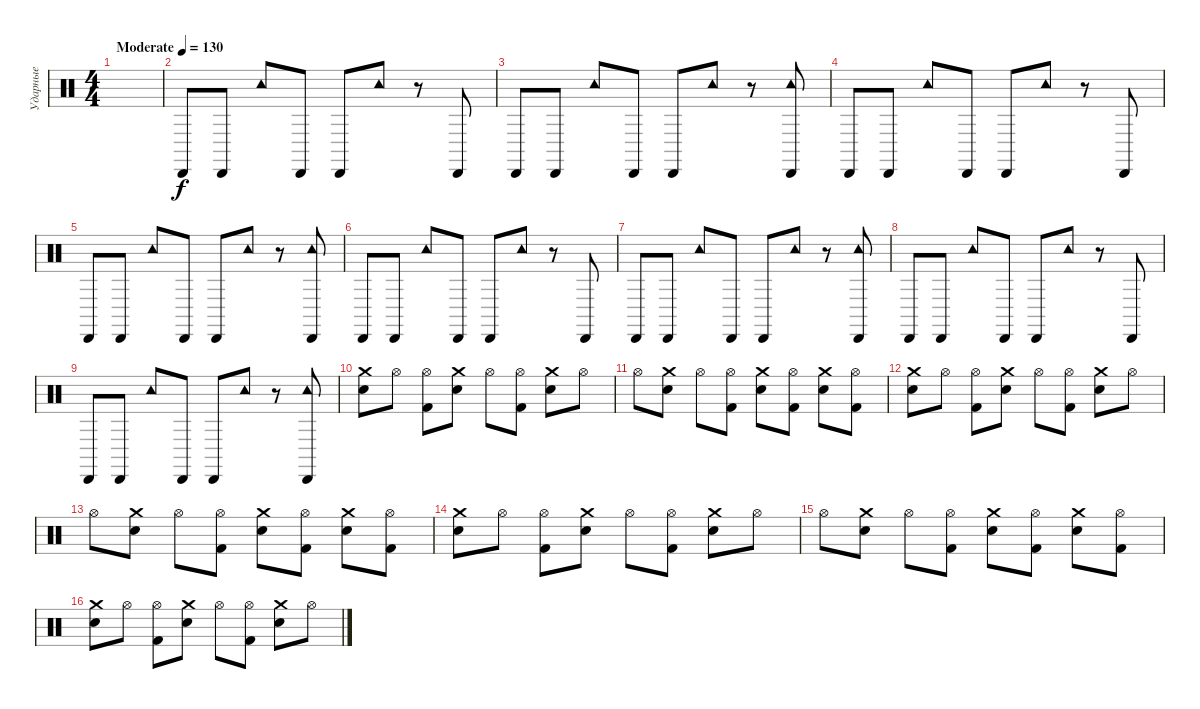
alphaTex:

\track ("Ударные" "Ударные") {instrument percussion}
\staff {score}
\articulation defaults
\ts (4 4)
\tempo (130 "Moderate")
\clef neutral
\ks c
|
"Cabasa (hit)".8 "Cabasa (hit)".8 "Tambourine (hit)".8 "Cabasa (hit)".8 "Cabasa (hit)".8 "Tambourine (hit)".8 r.8 "Cabasa (hit)".8 |
"Cabasa (hit)".8 "Cabasa (hit)".8 "Tambourine (hit)".8 "Cabasa (hit)".8 "Cabasa (hit)".8 "Tambourine (hit)".8 r.8 ("Tambourine (hit)" "Cabasa (hit)").8 |
"Cabasa (hit)".8 "Cabasa (hit)".8 "Tambourine (hit)".8 "Cabasa (hit)".8 "Cabasa (hit)".8 "Tambourine (hit)".8 r.8 "Cabasa (hit)".8 |
"Cabasa (hit)".8 "Cabasa (hit)".8 "Tambourine (hit)".8 "Cabasa (hit)".8 "Cabasa (hit)".8 "Tambourine (hit)".8 r.8 ("Tambourine (hit)" "Cabasa (hit)").8 |
"Cabasa (hit)".8 "Cabasa (hit)".8 "Tambourine (hit)".8 "Cabasa (hit)".8 "Cabasa (hit)".8 "Tambourine (hit)".8 r.8 "Cabasa (hit)".8 |
"Cabasa (hit)".8 "Cabasa (hit)".8 "Tambourine (hit)".8 "Cabasa (hit)".8 "Cabasa (hit)".8 "Tambourine (hit)".8 r.8 ("Tambourine (hit)" "Cabasa (hit)").8 |
"Cabasa (hit)".8 "Cabasa (hit)".8 "Tambourine (hit)".8 "Cabasa (hit)".8 "Cabasa (hit)".8 "Tambourine (hit)".8 r.8 "Cabasa (hit)".8 |
"Cabasa (hit)".8 "Cabasa (hit)".8 "Tambourine (hit)".8 "Cabasa (hit)".8 "Cabasa (hit)".8 "Tambourine (hit)".8 r.8 ("Tambourine (hit)" "Cabasa (hit)").8 |
("Crash medium (hit)" "Snare (hit) 2").8 "Hi-Hat (open)".8 ("Hi-Hat (open)" "Kick (hit) 2").8 ("Crash medium (hit)" "Snare (hit) 2").8 "Hi-Hat (open)".8 ("Hi-Hat (open)" "Kick (hit) 2").8 ("Crash medium (hit)" "Snare (hit) 2").8 "Hi-Hat (open)".8 |
"Hi-Hat (open)".8 ("Crash medium (hit)" "Snare (hit) 2").8 "Hi-Hat (open)".8 ("Hi-Hat (open)" "Kick (hit) 2").8 ("Crash medium (hit)" "Snare (hit) 2").8 ("Hi-Hat (open)" "Kick (hit) 2").8 ("Crash medium (hit)" "Snare (hit) 2").8 ("Hi-Hat (open)" "Kick (hit) 2").8 |
("Crash medium (hit)" "Snare (hit) 2").8 "Hi-Hat (open)".8 ("Hi-Hat (open)" "Kick (hit) 2").8 ("Crash medium (hit)" "Snare (hit) 2").8 "Hi-Hat (open)".8 ("Hi-Hat (open)" "Kick (hit) 2").8 ("Crash medium (hit)" "Snare (hit) 2").8 "Hi-Hat (open)".8 |
"Hi-Hat (open)".8 ("Crash medium (hit)" "Snare (hit) 2").8 "Hi-Hat (open)".8 ("Hi-Hat (open)" "Kick (hit) 2").8 ("Crash medium (hit)" "Snare (hit) 2").8 ("Hi-Hat (open)" "Kick (hit) 2").8 ("Crash medium (hit)" "Snare (hit) 2").8 ("Hi-Hat (open)" "Kick (hit) 2").8 |
("Crash medium (hit)" "Snare (hit) 2").8 "Hi-Hat (open)".8 ("Hi-Hat (open)" "Kick (hit) 2").8 ("Crash medium (hit)" "Snare (hit) 2").8 "Hi-Hat (open)".8 ("Hi-Hat (open)" "Kick (hit) 2").8 ("Crash medium (hit)" "Snare (hit) 2").8 "Hi-Hat (open)".8 |
"Hi-Hat (open)".8 ("Crash medium (hit)" "Snare (hit) 2").8 "Hi-Hat (open)".8 ("Hi-Hat (open)" "Kick (hit) 2").8 ("Crash medium (hit)" "Snare (hit) 2").8 ("Hi-Hat (open)" "Kick (hit) 2").8 ("Crash medium (hit)" "Snare (hit) 2").8 ("Hi-Hat (open)" "Kick (hit) 2").8 |
("Crash medium (hit)" "Snare (hit) 2").8 "Hi-Hat (open)".8 ("Hi-Hat (open)" "Kick (hit) 2").8 ("Crash medium (hit)" "Snare (hit) 2").8 "Hi-Hat (open)".8 ("Hi-Hat (open)" "Kick (hit) 2").8 ("Crash medium (hit)" "Snare (hit) 2").8 "Hi-Hat (open)".8
